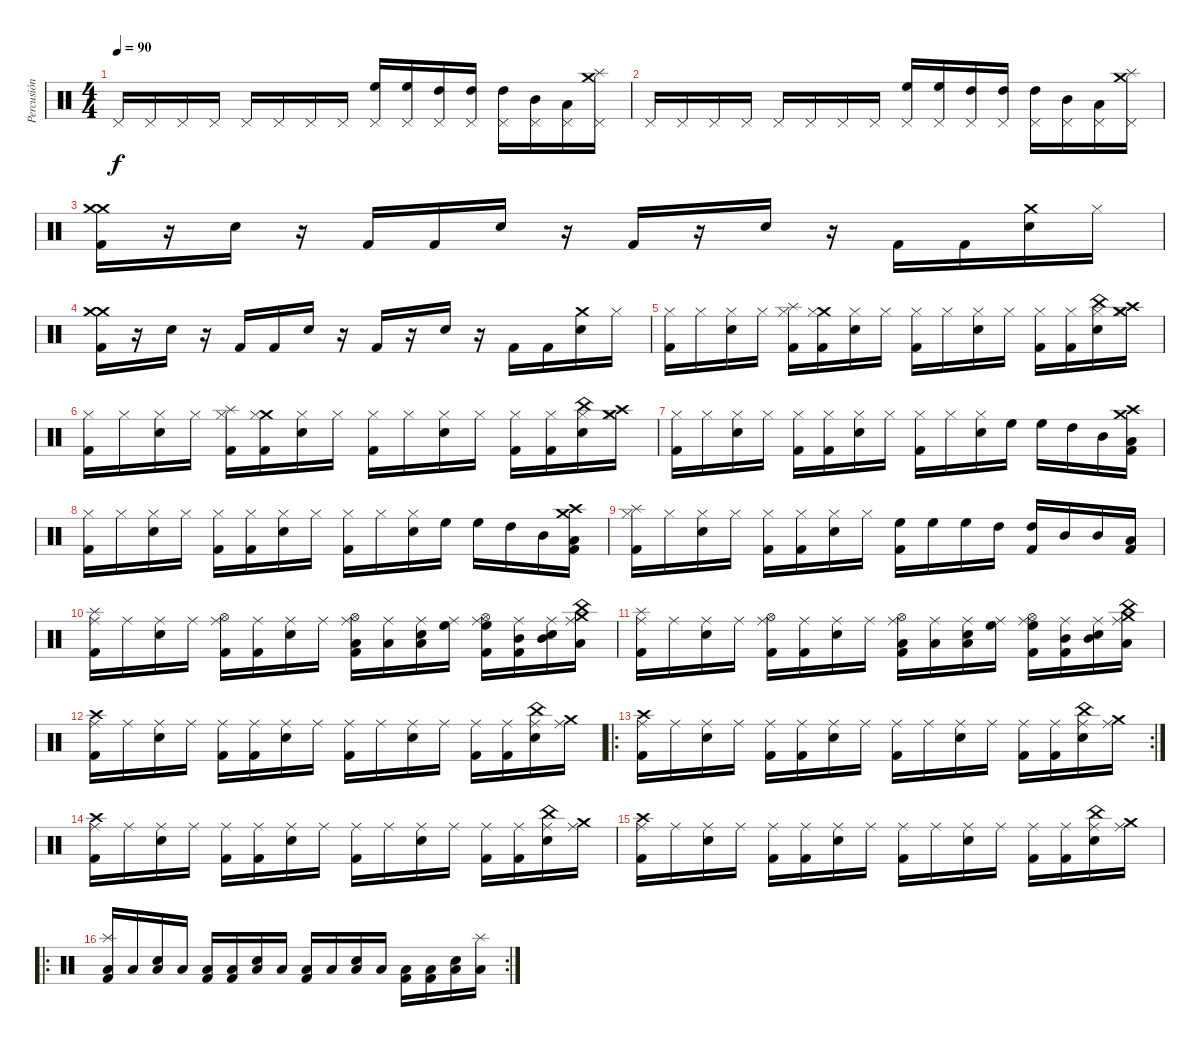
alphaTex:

\track ("Percusión" "Percusión") {instrument percussion}
\staff {score}
\articulation defaults
\ts (4 4)
\tempo 90
\clef neutral
\ks c "Pedal Hi-Hat (hit)".16{dy f} "Pedal Hi-Hat (hit)".16 "Pedal Hi-Hat (hit)".16 "Pedal Hi-Hat (hit)".16 "Pedal Hi-Hat (hit)".16 "Pedal Hi-Hat (hit)".16 "Pedal Hi-Hat (hit)".16 "Pedal Hi-Hat (hit)".16
("High Floor Tom (hit)" "Pedal Hi-Hat (hit)").16 ("High Floor Tom (hit)" "Pedal Hi-Hat (hit)").16 ("High Tom (hit)" "Pedal Hi-Hat (hit)").16 ("High Tom (hit)" "Pedal Hi-Hat (hit)").16 ("High Tom (hit)" "Pedal Hi-Hat (hit)").16 ("Mid Tom (hit)" "Pedal Hi-Hat (hit)").16 ("Low Tom (hit)" "Pedal Hi-Hat (hit)").16 ("Crash medium (hit)" "Splash (hit)" "Pedal Hi-Hat (hit)").16 |
"Pedal Hi-Hat (hit)".16 "Pedal Hi-Hat (hit)".16 "Pedal Hi-Hat (hit)".16 "Pedal Hi-Hat (hit)".16 "Pedal Hi-Hat (hit)".16 "Pedal Hi-Hat (hit)".16 "Pedal Hi-Hat (hit)".16 "Pedal Hi-Hat (hit)".16 ("High Floor Tom (hit)" "Pedal Hi-Hat (hit)").16 ("High Floor Tom (hit)" "Pedal Hi-Hat (hit)").16 ("High Tom (hit)" "Pedal Hi-Hat (hit)").16 ("High Tom (hit)" "Pedal Hi-Hat (hit)").16 ("High Tom (hit)" "Pedal Hi-Hat (hit)").16 ("Mid Tom (hit)" "Pedal Hi-Hat (hit)").16 ("Low Tom (hit)" "Pedal Hi-Hat (hit)").16 ("Crash medium (hit)" "Splash (hit)" "Pedal Hi-Hat (hit)").16 |
("Crash medium (hit)" "Crash medium (hit)" "Kick (hit) 2").16 r.16 "Electric Snare (hit)".16 r.16 "Kick (hit) 2".16 "Kick (hit) 2".16 "Electric Snare (hit)".16 r.16 "Kick (hit) 2".16 r.16 "Electric Snare (hit)".16 r.16 "Kick (hit) 2".16 "Kick (hit) 2".16 ("Crash medium (hit)" "Electric Snare (hit)").16 "Hi-Hat (closed)".16 |
("Crash medium (hit)" "Crash medium (hit)" "Kick (hit) 2").16 r.16 "Electric Snare (hit)".16 r.16 "Kick (hit) 2".16 "Kick (hit) 2".16 "Electric Snare (hit)".16 r.16 "Kick (hit) 2".16 r.16 "Electric Snare (hit)".16 r.16 "Kick (hit) 2".16 "Kick (hit) 2".16 ("Crash medium (hit)" "Electric Snare (hit)").16 "Hi-Hat (closed)".16 |
("Hi-Hat (closed)" "Kick (hit) 2").16 "Hi-Hat (closed)".16 ("Hi-Hat (closed)" "Electric Snare (hit)").16 "Hi-Hat (closed)".16 ("Splash (hit)" "Hi-Hat (closed)" "Kick (hit) 2").16 ("Crash medium (hit)" "Hi-Hat (closed)" "Kick (hit) 2").16 ("Hi-Hat (closed)" "Electric Snare (hit)").16 "Hi-Hat (closed)".16 ("Hi-Hat (closed)" "Kick (hit) 2").16 "Hi-Hat (closed)".16 ("Hi-Hat (closed)" "Electric Snare (hit)").16 "Hi-Hat (closed)".16 ("Hi-Hat (closed)" "Kick (hit) 2").16 ("Hi-Hat (closed)" "Kick (hit) 2").16 ("China (hit)" "Hi-Hat (closed)" "Electric Snare (hit)").16 ("Crash high (hit)" "Hi-Hat (closed)" "Crash medium (hit)").16 |
("Hi-Hat (closed)" "Kick (hit) 2").16 "Hi-Hat (closed)".16 ("Hi-Hat (closed)" "Electric Snare (hit)").16 "Hi-Hat (closed)".16 ("Splash (hit)" "Hi-Hat (closed)" "Kick (hit) 2").16 ("Crash medium (hit)" "Hi-Hat (closed)" "Kick (hit) 2").16 ("Hi-Hat (closed)" "Electric Snare (hit)").16 "Hi-Hat (closed)".16 ("Hi-Hat (closed)" "Kick (hit) 2").16 "Hi-Hat (closed)".16 ("Hi-Hat (closed)" "Electric Snare (hit)").16 "Hi-Hat (closed)".16 ("Hi-Hat (closed)" "Kick (hit) 2").16 ("Hi-Hat (closed)" "Kick (hit) 2").16 ("China (hit)" "Hi-Hat (closed)" "Electric Snare (hit)").16 ("Crash high (hit)" "Hi-Hat (closed)" "Crash medium (hit)").16 |
("Hi-Hat (closed)" "Kick (hit) 2").16 "Hi-Hat (closed)".16 ("Hi-Hat (closed)" "Electric Snare (hit)").16 "Hi-Hat (closed)".16 ("Hi-Hat (closed)" "Kick (hit) 2").16 ("Hi-Hat (closed)" "Kick (hit) 2").16 ("Hi-Hat (closed)" "Electric Snare (hit)").16 "Hi-Hat (closed)".16 ("Hi-Hat (closed)" "Kick (hit) 2").16 "Hi-Hat (closed)".16 ("Hi-Hat (closed)" "Electric Snare (hit)").16 "High Floor Tom (hit)".16 "High Floor Tom (hit)".16 "High Tom (hit)".16 "Mid Tom (hit)".16 ("Crash high (hit)" "Kick (hit) 2" "Low Tom (hit)" "Crash medium (hit)").16 |
("Hi-Hat (closed)" "Kick (hit) 2").16 "Hi-Hat (closed)".16 ("Hi-Hat (closed)" "Electric Snare (hit)").16 "Hi-Hat (closed)".16 ("Hi-Hat (closed)" "Kick (hit) 2").16 ("Hi-Hat (closed)" "Kick (hit) 2").16 ("Hi-Hat (closed)" "Electric Snare (hit)").16 "Hi-Hat (closed)".16 ("Hi-Hat (closed)" "Kick (hit) 2").16 "Hi-Hat (closed)".16 ("Hi-Hat (closed)" "Electric Snare (hit)").16 "High Floor Tom (hit)".16 "High Floor Tom (hit)".16 "High Tom (hit)".16 "Mid Tom (hit)".16 ("Crash high (hit)" "Kick (hit) 2" "Low Tom (hit)" "Crash medium (hit)").16 |
("Splash (hit)" "Hi-Hat (closed)" "Kick (hit) 2").16 "Hi-Hat (closed)".16 ("Hi-Hat (closed)" "Electric Snare (hit)").16 "Hi-Hat (closed)".16 ("Hi-Hat (closed)" "Kick (hit) 2").16 ("Hi-Hat (closed)" "Kick (hit) 2").16 ("Hi-Hat (closed)" "Electric Snare (hit)").16 "Hi-Hat (closed)".16 ("High Floor Tom (hit)" "Kick (hit) 2").16 "High Floor Tom (hit)".16 "High Floor Tom (hit)".16 "High Tom (hit)".16 ("High Tom (hit)" "Kick (hit) 2").16 "Mid Tom (hit)".16 "Mid Tom (hit)".16 ("Low Tom (hit)" "Kick (hit) 2").16 |
("Splash (hit)" "Ride (middle)" "Kick (hit) 2").16 "Ride (middle)".16 ("Ride (middle)" "Electric Snare (hit)").16 "Ride (middle)".16 ("Hi-Hat (open)" "Ride (middle)" "Kick (hit) 2").16 ("Ride (middle)" "Kick (hit) 2").16 ("Ride (middle)" "Electric Snare (hit)").16 "Ride (middle)".16 ("Hi-Hat (open)" "Ride (middle)" "Kick (hit) 2" "Low Tom (hit)").16 ("Ride (middle)" "Low Tom (hit)").16 ("Ride (middle)" "Electric Snare (hit)" "Low Tom (hit)").16 ("Ride (middle)" "High Floor Tom (hit)").16 ("Hi-Hat (open)" "Ride (middle)" "Kick (hit) 2" "High Floor Tom (hit)").16 ("Ride (middle)" "Kick (hit) 2" "Mid Tom (hit)").16 ("Ride (middle)" "Electric Snare (hit)" "Mid Tom (hit)").16 ("China (hit)" "Ride (middle)" "Crash medium (hit)" "Low Tom (hit)").16 |
("Splash (hit)" "Ride (middle)" "Kick (hit) 2").16 "Ride (middle)".16 ("Ride (middle)" "Electric Snare (hit)").16 "Ride (middle)".16 ("Hi-Hat (open)" "Ride (middle)" "Kick (hit) 2").16 ("Ride (middle)" "Kick (hit) 2").16 ("Ride (middle)" "Electric Snare (hit)").16 "Ride (middle)".16 ("Hi-Hat (open)" "Ride (middle)" "Kick (hit) 2" "Low Tom (hit)").16 ("Ride (middle)" "Low Tom (hit)").16 ("Ride (middle)" "Electric Snare (hit)" "Low Tom (hit)").16 ("Ride (middle)" "High Floor Tom (hit)").16 ("Hi-Hat (open)" "Ride (middle)" "Kick (hit) 2" "High Floor Tom (hit)").16 ("Ride (middle)" "Kick (hit) 2" "Mid Tom (hit)").16 ("Ride (middle)" "Electric Snare (hit)" "Mid Tom (hit)").16 ("China (hit)" "Ride (middle)" "Crash medium (hit)" "Low Tom (hit)").16 |
("Crash high (hit)" "Ride (middle)" "Kick (hit) 2").16 "Ride (middle)".16 ("Ride (middle)" "Electric Snare (hit)").16 "Ride (middle)".16 ("Ride (middle)" "Kick (hit) 2").16 ("Ride (middle)" "Kick (hit) 2").16 ("Ride (middle)" "Electric Snare (hit)").16 "Ride (middle)".16 ("Ride (middle)" "Kick (hit) 2").16 "Ride (middle)".16 ("Ride (middle)" "Electric Snare (hit)").16 "Ride (middle)".16 ("Ride (middle)" "Kick (hit) 2").16 ("Ride (middle)" "Kick (hit) 2").16 ("China (hit)" "Ride (middle)" "Electric Snare (hit)").16 ("Crash medium (hit)" "Ride (middle)").16 |
\ro
\rc 2
("Crash high (hit)" "Ride (middle)" "Kick (hit) 2").16 "Ride (middle)".16 ("Ride (middle)" "Electric Snare (hit)").16 "Ride (middle)".16 ("Ride (middle)" "Kick (hit) 2").16 ("Ride (middle)" "Kick (hit) 2").16 ("Ride (middle)" "Electric Snare (hit)").16 "Ride (middle)".16 ("Ride (middle)" "Kick (hit) 2").16 "Ride (middle)".16 ("Ride (middle)" "Electric Snare (hit)").16 "Ride (middle)".16 ("Ride (middle)" "Kick (hit) 2").16 ("Ride (middle)" "Kick (hit) 2").16 ("China (hit)" "Ride (middle)" "Electric Snare (hit)").16 ("Crash medium (hit)" "Ride (middle)").16 |
("Crash high (hit)" "Ride (middle)" "Kick (hit) 2").16 "Ride (middle)".16 ("Ride (middle)" "Electric Snare (hit)").16 "Ride (middle)".16 ("Ride (middle)" "Kick (hit) 2").16 ("Ride (middle)" "Kick (hit) 2").16 ("Ride (middle)" "Electric Snare (hit)").16 "Ride (middle)".16 ("Ride (middle)" "Kick (hit) 2").16 "Ride (middle)".16 ("Ride (middle)" "Electric Snare (hit)").16 "Ride (middle)".16 ("Ride (middle)" "Kick (hit) 2").16 ("Ride (middle)" "Kick (hit) 2").16 ("China (hit)" "Ride (middle)" "Electric Snare (hit)").16 ("Crash medium (hit)" "Ride (middle)").16 |
("Crash high (hit)" "Ride (middle)" "Kick (hit) 2").16 "Ride (middle)".16 ("Ride (middle)" "Electric Snare (hit)").16 "Ride (middle)".16 ("Ride (middle)" "Kick (hit) 2").16 ("Ride (middle)" "Kick (hit) 2").16 ("Ride (middle)" "Electric Snare (hit)").16 "Ride (middle)".16 ("Ride (middle)" "Kick (hit) 2").16 "Ride (middle)".16 ("Ride (middle)" "Electric Snare (hit)").16 "Ride (middle)".16 ("Ride (middle)" "Kick (hit) 2").16 ("Ride (middle)" "Kick (hit) 2").16 ("China (hit)" "Ride (middle)" "Electric Snare (hit)").16 ("Crash medium (hit)" "Ride (middle)").16 |
\ro
\rc 2
("Splash (hit)" "Low Tom (hit)" "Kick (hit) 2").16 "Low Tom (hit)".16 ("Low Tom (hit)" "Electric Snare (hit)").16 "Low Tom (hit)".16 ("Low Tom (hit)" "Kick (hit) 2").16 ("Low Tom (hit)" "Kick (hit) 2").16 ("Low Tom (hit)" "Electric Snare (hit)").16 "Low Tom (hit)".16 ("Low Tom (hit)" "Kick (hit) 2").16 "Low Tom (hit)".16 ("Low Tom (hit)" "Electric Snare (hit)").16 "Low Tom (hit)".16 ("Low Tom (hit)" "Kick (hit) 2").16 ("Low Tom (hit)" "Kick (hit) 2").16 ("Low Tom (hit)" "Electric Snare (hit)").16 ("Splash (hit)" "Low Tom (hit)").16
